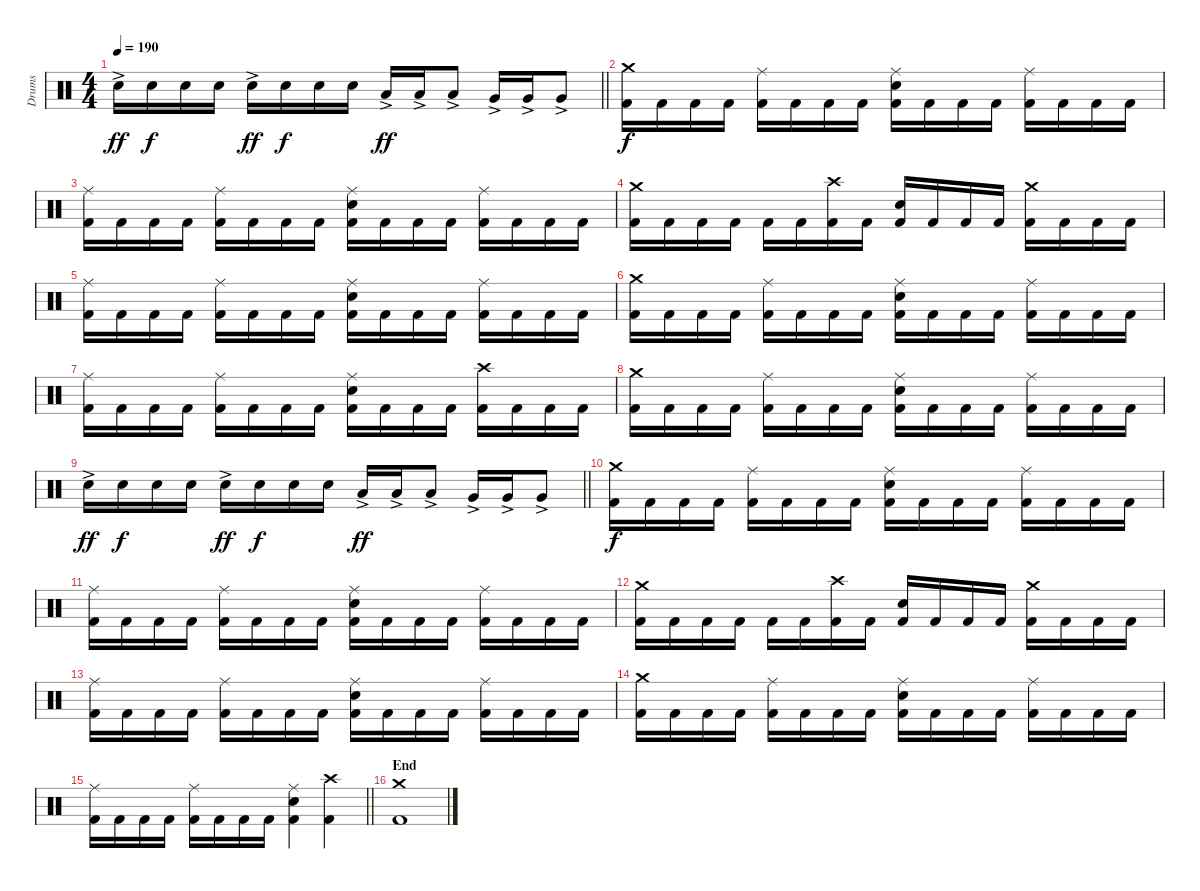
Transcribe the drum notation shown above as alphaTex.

\track ("Drums" "Drums") {instrument percussion}
\staff {score}
\articulation defaults
\ts (4 4)
\tempo 190
\clef neutral
\barLineRight lightlight
\ks c "Snare (hit) 2"{ac}.16{dy ff} "Snare (hit) 2".16{dy f} "Snare (hit) 2".16 "Snare (hit) 2".16 "Snare (hit) 2"{ac}.16{dy ff} "Snare (hit) 2".16{dy f} "Snare (hit) 2".16 "Snare (hit) 2".16 "Low Tom (hit)"{ac}.16{dy ff} "Low Tom (hit)"{ac}.16 "Low Tom (hit)"{ac}.8 "Very Low Tom (hit)"{ac}.16 "Very Low Tom (hit)"{ac}.16 "Very Low Tom (hit)"{ac}.8
|
\section ("" "")
("Kick (hit) 2" "Crash medium (hit)").16{dy f} "Kick (hit) 2".16 "Kick (hit) 2".16 "Kick (hit) 2".16 ("Kick (hit) 2" "Ride (middle)").16 "Kick (hit) 2".16 "Kick (hit) 2".16 "Kick (hit) 2".16 ("Kick (hit) 2" "Snare (hit) 2" "Ride (middle)").16 "Kick (hit) 2".16 "Kick (hit) 2".16 "Kick (hit) 2".16 ("Kick (hit) 2" "Ride (middle)").16 "Kick (hit) 2".16 "Kick (hit) 2".16 "Kick (hit) 2".16 |
("Kick (hit) 2" "Ride (middle)").16 "Kick (hit) 2".16 "Kick (hit) 2".16 "Kick (hit) 2".16 ("Kick (hit) 2" "Ride (middle)").16 "Kick (hit) 2".16 "Kick (hit) 2".16 "Kick (hit) 2".16 ("Kick (hit) 2" "Snare (hit) 2" "Ride (middle)").16 "Kick (hit) 2".16 "Kick (hit) 2".16 "Kick (hit) 2".16 ("Kick (hit) 2" "Ride (middle)").16 "Kick (hit) 2".16 "Kick (hit) 2".16 "Kick (hit) 2".16 |
("Kick (hit) 2" "Crash medium (hit)").16 "Kick (hit) 2".16 "Kick (hit) 2".16 "Kick (hit) 2".16 "Kick (hit) 2".16 "Kick (hit) 2".16 ("Kick (hit) 2" "Crash high (hit)").16 "Kick (hit) 2".16 ("Kick (hit) 2" "Snare (hit) 2").16 "Kick (hit) 2".16 "Kick (hit) 2".16 "Kick (hit) 2".16 ("Kick (hit) 2" "Crash medium (hit)").16 "Kick (hit) 2".16 "Kick (hit) 2".16 "Kick (hit) 2".16 |
("Kick (hit) 2" "Ride (middle)").16 "Kick (hit) 2".16 "Kick (hit) 2".16 "Kick (hit) 2".16 ("Kick (hit) 2" "Ride (middle)").16 "Kick (hit) 2".16 "Kick (hit) 2".16 "Kick (hit) 2".16 ("Kick (hit) 2" "Snare (hit) 2" "Ride (middle)").16 "Kick (hit) 2".16 "Kick (hit) 2".16 "Kick (hit) 2".16 ("Kick (hit) 2" "Ride (middle)").16 "Kick (hit) 2".16 "Kick (hit) 2".16 "Kick (hit) 2".16 |
("Kick (hit) 2" "Crash medium (hit)").16 "Kick (hit) 2".16 "Kick (hit) 2".16 "Kick (hit) 2".16 ("Kick (hit) 2" "Ride (middle)").16 "Kick (hit) 2".16 "Kick (hit) 2".16 "Kick (hit) 2".16 ("Kick (hit) 2" "Snare (hit) 2" "Ride (middle)").16 "Kick (hit) 2".16 "Kick (hit) 2".16 "Kick (hit) 2".16 ("Kick (hit) 2" "Ride (middle)").16 "Kick (hit) 2".16 "Kick (hit) 2".16 "Kick (hit) 2".16 |
("Kick (hit) 2" "Ride (middle)").16 "Kick (hit) 2".16 "Kick (hit) 2".16 "Kick (hit) 2".16 ("Kick (hit) 2" "Ride (middle)").16 "Kick (hit) 2".16 "Kick (hit) 2".16 "Kick (hit) 2".16 ("Kick (hit) 2" "Snare (hit) 2" "Ride (middle)").16 "Kick (hit) 2".16 "Kick (hit) 2".16 "Kick (hit) 2".16 ("Kick (hit) 2" "Crash high (hit)").16 "Kick (hit) 2".16 "Kick (hit) 2".16 "Kick (hit) 2".16 |
("Kick (hit) 2" "Crash medium (hit)").16 "Kick (hit) 2".16 "Kick (hit) 2".16 "Kick (hit) 2".16 ("Kick (hit) 2" "Ride (middle)").16 "Kick (hit) 2".16 "Kick (hit) 2".16 "Kick (hit) 2".16 ("Kick (hit) 2" "Snare (hit) 2" "Ride (middle)").16 "Kick (hit) 2".16 "Kick (hit) 2".16 "Kick (hit) 2".16 ("Kick (hit) 2" "Ride (middle)").16 "Kick (hit) 2".16 "Kick (hit) 2".16 "Kick (hit) 2".16 |
\barLineRight lightlight "Snare (hit) 2"{ac}.16{dy ff} "Snare (hit) 2".16{dy f} "Snare (hit) 2".16 "Snare (hit) 2".16 "Snare (hit) 2"{ac}.16{dy ff} "Snare (hit) 2".16{dy f} "Snare (hit) 2".16 "Snare (hit) 2".16 "Low Tom (hit)"{ac}.16{dy ff} "Low Tom (hit)"{ac}.16 "Low Tom (hit)"{ac}.8 "Very Low Tom (hit)"{ac}.16 "Very Low Tom (hit)"{ac}.16 "Very Low Tom (hit)"{ac}.8
|
\section ("" "")
("Kick (hit) 2" "Crash medium (hit)").16{dy f} "Kick (hit) 2".16 "Kick (hit) 2".16 "Kick (hit) 2".16 ("Kick (hit) 2" "Ride (middle)").16 "Kick (hit) 2".16 "Kick (hit) 2".16 "Kick (hit) 2".16 ("Kick (hit) 2" "Snare (hit) 2" "Ride (middle)").16 "Kick (hit) 2".16 "Kick (hit) 2".16 "Kick (hit) 2".16 ("Kick (hit) 2" "Ride (middle)").16 "Kick (hit) 2".16 "Kick (hit) 2".16 "Kick (hit) 2".16 |
("Kick (hit) 2" "Ride (middle)").16 "Kick (hit) 2".16 "Kick (hit) 2".16 "Kick (hit) 2".16 ("Kick (hit) 2" "Ride (middle)").16 "Kick (hit) 2".16 "Kick (hit) 2".16 "Kick (hit) 2".16 ("Kick (hit) 2" "Snare (hit) 2" "Ride (middle)").16 "Kick (hit) 2".16 "Kick (hit) 2".16 "Kick (hit) 2".16 ("Kick (hit) 2" "Ride (middle)").16 "Kick (hit) 2".16 "Kick (hit) 2".16 "Kick (hit) 2".16 |
("Kick (hit) 2" "Crash medium (hit)").16 "Kick (hit) 2".16 "Kick (hit) 2".16 "Kick (hit) 2".16 "Kick (hit) 2".16 "Kick (hit) 2".16 ("Kick (hit) 2" "Crash high (hit)").16 "Kick (hit) 2".16 ("Kick (hit) 2" "Snare (hit) 2").16 "Kick (hit) 2".16 "Kick (hit) 2".16 "Kick (hit) 2".16 ("Kick (hit) 2" "Crash medium (hit)").16 "Kick (hit) 2".16 "Kick (hit) 2".16 "Kick (hit) 2".16 |
("Kick (hit) 2" "Ride (middle)").16 "Kick (hit) 2".16 "Kick (hit) 2".16 "Kick (hit) 2".16 ("Kick (hit) 2" "Ride (middle)").16 "Kick (hit) 2".16 "Kick (hit) 2".16 "Kick (hit) 2".16 ("Kick (hit) 2" "Snare (hit) 2" "Ride (middle)").16 "Kick (hit) 2".16 "Kick (hit) 2".16 "Kick (hit) 2".16 ("Kick (hit) 2" "Ride (middle)").16 "Kick (hit) 2".16 "Kick (hit) 2".16 "Kick (hit) 2".16 |
("Kick (hit) 2" "Crash medium (hit)").16 "Kick (hit) 2".16 "Kick (hit) 2".16 "Kick (hit) 2".16 ("Kick (hit) 2" "Ride (middle)").16 "Kick (hit) 2".16 "Kick (hit) 2".16 "Kick (hit) 2".16 ("Kick (hit) 2" "Snare (hit) 2" "Ride (middle)").16 "Kick (hit) 2".16 "Kick (hit) 2".16 "Kick (hit) 2".16 ("Kick (hit) 2" "Ride (middle)").16 "Kick (hit) 2".16 "Kick (hit) 2".16 "Kick (hit) 2".16 |
\barLineRight lightlight
("Kick (hit) 2" "Ride (middle)").16 "Kick (hit) 2".16 "Kick (hit) 2".16 "Kick (hit) 2".16 ("Kick (hit) 2" "Ride (middle)").16 "Kick (hit) 2".16 "Kick (hit) 2".16 "Kick (hit) 2".16 ("Kick (hit) 2" "Snare (hit) 2" "Ride (middle)").4 ("Kick (hit) 2" "Crash high (hit)").4 |
\section ("" "End")
("Kick (hit) 2" "Crash medium (hit)").1
